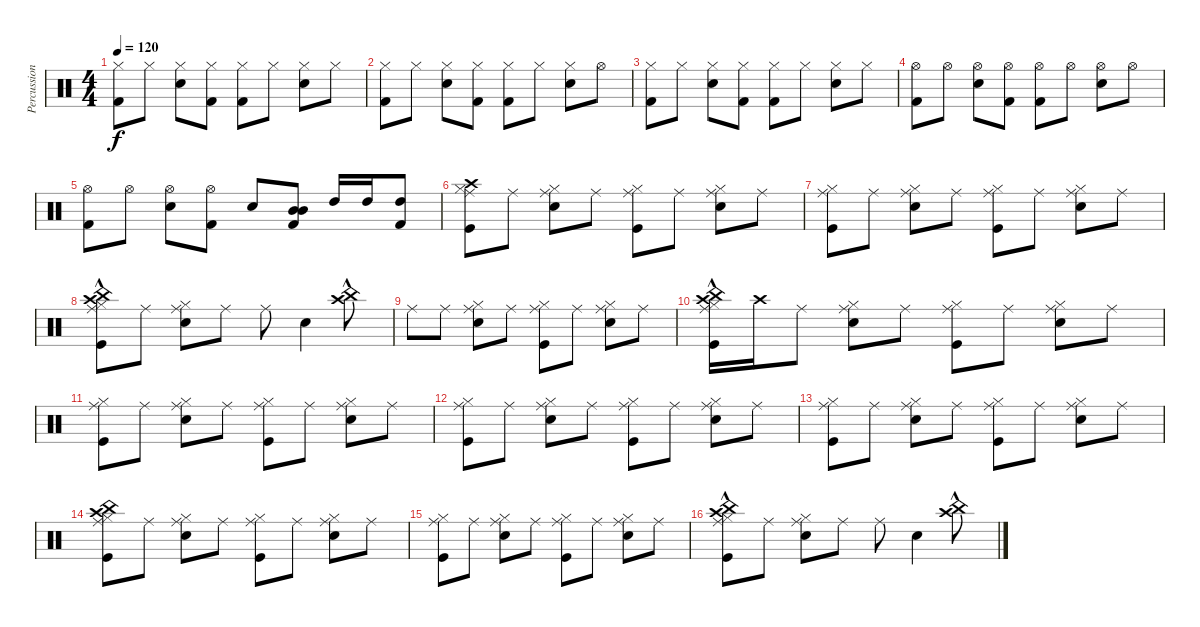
\track ("Percussion" "Percussion") {instrument percussion}
\staff {score}
\articulation defaults
\ts (4 4)
\tempo 120
\clef neutral
\ks c
("Hi-Hat (closed)" "Kick (hit) 2").8{dy f} "Hi-Hat (closed)".8 ("Snare (hit) 2" "Hi-Hat (closed)").8 ("Kick (hit) 2" "Hi-Hat (closed)").8 ("Kick (hit) 2" "Hi-Hat (closed)").8 "Hi-Hat (closed)".8 ("Hi-Hat (closed)" "Snare (hit) 2").8 "Hi-Hat (closed)".8 |
("Hi-Hat (closed)" "Kick (hit) 2").8 "Hi-Hat (closed)".8 ("Snare (hit) 2" "Hi-Hat (closed)").8 ("Kick (hit) 2" "Hi-Hat (closed)").8 ("Kick (hit) 2" "Hi-Hat (closed)").8 "Hi-Hat (closed)".8 ("Hi-Hat (closed)" "Snare (hit) 2").8 "Hi-Hat (open)".8 |
("Hi-Hat (closed)" "Kick (hit) 2").8 "Hi-Hat (closed)".8 ("Snare (hit) 2" "Hi-Hat (closed)").8 ("Kick (hit) 2" "Hi-Hat (closed)").8 ("Kick (hit) 2" "Hi-Hat (closed)").8 "Hi-Hat (closed)".8 ("Hi-Hat (closed)" "Snare (hit) 2").8 "Hi-Hat (closed)".8 |
("Hi-Hat (open)" "Kick (hit) 2").8 "Hi-Hat (open)".8 ("Hi-Hat (open)" "Snare (hit) 2").8 ("Hi-Hat (open)" "Kick (hit) 2").8 ("Hi-Hat (open)" "Kick (hit) 2").8 "Hi-Hat (open)".8 ("Hi-Hat (open)" "Snare (hit) 2").8 "Hi-Hat (open)".8 |
("Hi-Hat (open)" "Kick (hit) 2").8 "Hi-Hat (open)".8 ("Hi-Hat (open)" "Snare (hit) 2").8 ("Hi-Hat (open)" "Kick (hit) 2").8 "Snare (hit) 2".8 ("Mid Tom (hit)" "Mid Tom (hit)" "Kick (hit) 2").8 "High Tom (hit)".16 "High Tom (hit)".16 ("Kick (hit) 2" "High Tom (hit)").8 |
("Crash high (hit)" "Ride (middle)" "Hi-Hat (closed)" "Kick (hit)").8 "Ride (middle)".8 ("Ride (middle)" "Hi-Hat (closed)" "Snare (hit) 2").8 "Ride (middle)".8 ("Ride (middle)" "Hi-Hat (closed)" "Kick (hit)").8 "Ride (middle)".8 ("Ride (middle)" "Hi-Hat (closed)" "Snare (hit) 2").8 "Ride (middle)".8 |
("Hi-Hat (closed)" "Kick (hit)" "Ride (middle)").8 "Ride (middle)".8 ("Ride (middle)" "Hi-Hat (closed)" "Snare (hit) 2").8 "Ride (middle)".8 ("Ride (middle)" "Hi-Hat (closed)" "Kick (hit)").8 "Ride (middle)".8 ("Ride (middle)" "Hi-Hat (closed)" "Snare (hit) 2").8 "Ride (middle)".8 |
("Ride (middle)"{hac} "Hi-Hat (closed)"{hac} "Kick (hit)"{hac} "China (hit)"{hac} "Crash high (hit)"{hac}).8 "Ride (middle)".8 ("Ride (middle)" "Hi-Hat (closed)" "Snare (hit) 2").8 "Ride (middle)".8 "Ride (middle)".8 "Snare (hit) 2".4 ("Crash high (hit)"{hac} "China (hit)").8 |
"Ride (middle)".8 "Ride (middle)".8 ("Ride (middle)" "Hi-Hat (closed)" "Snare (hit) 2").8 "Ride (middle)".8 ("Ride (middle)" "Hi-Hat (closed)" "Kick (hit)").8 "Ride (middle)".8 ("Ride (middle)" "Hi-Hat (closed)" "Snare (hit) 2").8 "Ride (middle)".8 |
("Crash high (hit)" "Ride (middle)"{hac} "Hi-Hat (closed)"{hac} "Kick (hit)"{hac} "China (hit)"{hac}).16 "Crash high (hit)".16 "Ride (middle)".8 ("Ride (middle)" "Hi-Hat (closed)" "Snare (hit) 2").8 "Ride (middle)".8 ("Ride (middle)" "Hi-Hat (closed)" "Kick (hit)").8 "Ride (middle)".8 ("Ride (middle)" "Hi-Hat (closed)" "Snare (hit) 2").8 "Ride (middle)".8 |
("Hi-Hat (closed)" "Kick (hit)" "Ride (middle)").8 "Ride (middle)".8 ("Ride (middle)" "Hi-Hat (closed)" "Snare (hit) 2").8 "Ride (middle)".8 ("Ride (middle)" "Hi-Hat (closed)" "Kick (hit)").8 "Ride (middle)".8 ("Ride (middle)" "Hi-Hat (closed)" "Snare (hit) 2").8 "Ride (middle)".8 |
("Hi-Hat (closed)" "Kick (hit)" "Ride (middle)").8 "Ride (middle)".8 ("Ride (middle)" "Hi-Hat (closed)" "Snare (hit) 2").8 "Ride (middle)".8 ("Ride (middle)" "Hi-Hat (closed)" "Kick (hit)").8 "Ride (middle)".8 ("Ride (middle)" "Hi-Hat (closed)" "Snare (hit) 2").8 "Ride (middle)".8 |
("Hi-Hat (closed)" "Kick (hit)" "Ride (middle)").8 "Ride (middle)".8 ("Ride (middle)" "Hi-Hat (closed)" "Snare (hit) 2").8 "Ride (middle)".8 ("Ride (middle)" "Hi-Hat (closed)" "Kick (hit)").8 "Ride (middle)".8 ("Ride (middle)" "Hi-Hat (closed)" "Snare (hit) 2").8 "Ride (middle)".8 |
("Crash high (hit)" "Ride (middle)" "Hi-Hat (closed)" "Kick (hit)" "China (hit)").8 "Ride (middle)".8 ("Ride (middle)" "Hi-Hat (closed)" "Snare (hit) 2").8 "Ride (middle)".8 ("Ride (middle)" "Hi-Hat (closed)" "Kick (hit)").8 "Ride (middle)".8 ("Ride (middle)" "Hi-Hat (closed)" "Snare (hit) 2").8 "Ride (middle)".8 |
("Hi-Hat (closed)" "Kick (hit)" "Ride (middle)").8 "Ride (middle)".8 ("Ride (middle)" "Hi-Hat (closed)" "Snare (hit) 2").8 "Ride (middle)".8 ("Ride (middle)" "Hi-Hat (closed)" "Kick (hit)").8 "Ride (middle)".8 ("Ride (middle)" "Hi-Hat (closed)" "Snare (hit) 2").8 "Ride (middle)".8 |
("Ride (middle)"{hac} "Hi-Hat (closed)"{hac} "Kick (hit)"{hac} "China (hit)"{hac} "Crash high (hit)"{hac}).8 "Ride (middle)".8 ("Ride (middle)" "Hi-Hat (closed)" "Snare (hit) 2").8 "Ride (middle)".8 "Ride (middle)".8 "Snare (hit) 2".4 ("Crash high (hit)"{hac} "China (hit)").8
